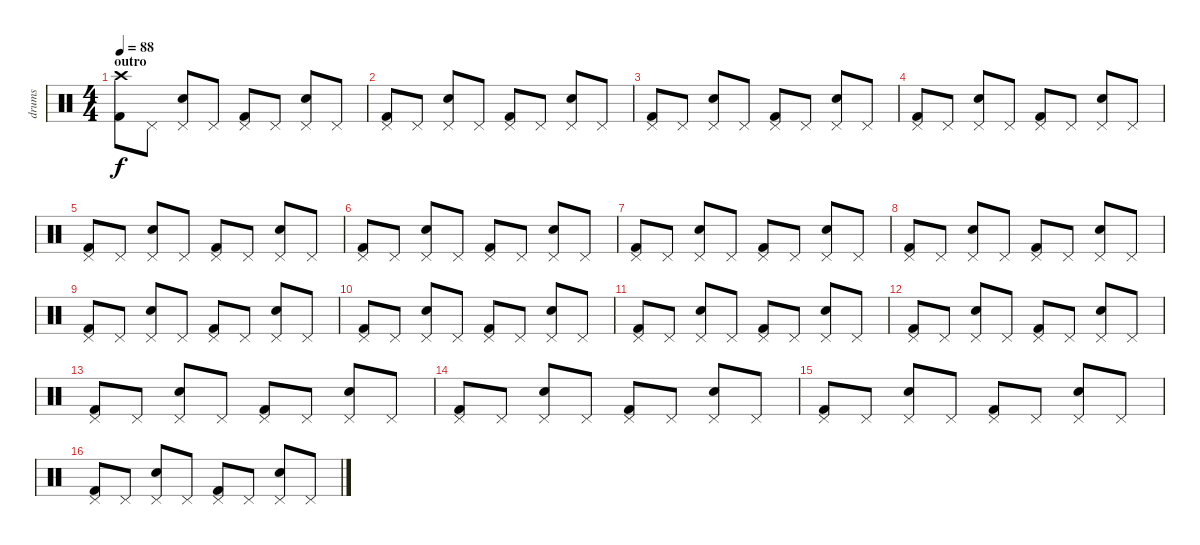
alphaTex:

\track ("drums" "drums") {instrument percussion}
\staff {score}
\articulation defaults
\ts (4 4)
\section ("" "outro")
\tempo 88
\clef neutral
\ks c
("Kick (hit) 2" "Crash high (hit)").8{dy f} "Pedal Hi-Hat (hit)".8 ("Electric Snare (hit)" "Pedal Hi-Hat (hit)").8 "Pedal Hi-Hat (hit)".8 ("Kick (hit) 2" "Pedal Hi-Hat (hit)").8 "Pedal Hi-Hat (hit)".8 ("Electric Snare (hit)" "Pedal Hi-Hat (hit)").8 "Pedal Hi-Hat (hit)".8 |
("Kick (hit) 2" "Pedal Hi-Hat (hit)").8 "Pedal Hi-Hat (hit)".8 ("Electric Snare (hit)" "Pedal Hi-Hat (hit)").8 "Pedal Hi-Hat (hit)".8 ("Kick (hit) 2" "Pedal Hi-Hat (hit)").8 "Pedal Hi-Hat (hit)".8 ("Electric Snare (hit)" "Pedal Hi-Hat (hit)").8 "Pedal Hi-Hat (hit)".8 |
("Kick (hit) 2" "Pedal Hi-Hat (hit)").8 "Pedal Hi-Hat (hit)".8 ("Electric Snare (hit)" "Pedal Hi-Hat (hit)").8 "Pedal Hi-Hat (hit)".8 ("Kick (hit) 2" "Pedal Hi-Hat (hit)").8 "Pedal Hi-Hat (hit)".8 ("Electric Snare (hit)" "Pedal Hi-Hat (hit)").8 "Pedal Hi-Hat (hit)".8 |
("Kick (hit) 2" "Pedal Hi-Hat (hit)").8 "Pedal Hi-Hat (hit)".8 ("Electric Snare (hit)" "Pedal Hi-Hat (hit)").8 "Pedal Hi-Hat (hit)".8 ("Kick (hit) 2" "Pedal Hi-Hat (hit)").8 "Pedal Hi-Hat (hit)".8 ("Electric Snare (hit)" "Pedal Hi-Hat (hit)").8 "Pedal Hi-Hat (hit)".8 |
("Kick (hit) 2" "Pedal Hi-Hat (hit)").8 "Pedal Hi-Hat (hit)".8 ("Electric Snare (hit)" "Pedal Hi-Hat (hit)").8 "Pedal Hi-Hat (hit)".8 ("Kick (hit) 2" "Pedal Hi-Hat (hit)").8 "Pedal Hi-Hat (hit)".8 ("Electric Snare (hit)" "Pedal Hi-Hat (hit)").8 "Pedal Hi-Hat (hit)".8 |
("Kick (hit) 2" "Pedal Hi-Hat (hit)").8 "Pedal Hi-Hat (hit)".8 ("Electric Snare (hit)" "Pedal Hi-Hat (hit)").8 "Pedal Hi-Hat (hit)".8 ("Kick (hit) 2" "Pedal Hi-Hat (hit)").8 "Pedal Hi-Hat (hit)".8 ("Electric Snare (hit)" "Pedal Hi-Hat (hit)").8 "Pedal Hi-Hat (hit)".8 |
("Kick (hit) 2" "Pedal Hi-Hat (hit)").8 "Pedal Hi-Hat (hit)".8 ("Electric Snare (hit)" "Pedal Hi-Hat (hit)").8 "Pedal Hi-Hat (hit)".8 ("Kick (hit) 2" "Pedal Hi-Hat (hit)").8 "Pedal Hi-Hat (hit)".8 ("Electric Snare (hit)" "Pedal Hi-Hat (hit)").8 "Pedal Hi-Hat (hit)".8 |
("Kick (hit) 2" "Pedal Hi-Hat (hit)").8 "Pedal Hi-Hat (hit)".8 ("Electric Snare (hit)" "Pedal Hi-Hat (hit)").8 "Pedal Hi-Hat (hit)".8 ("Kick (hit) 2" "Pedal Hi-Hat (hit)").8 "Pedal Hi-Hat (hit)".8 ("Electric Snare (hit)" "Pedal Hi-Hat (hit)").8 "Pedal Hi-Hat (hit)".8 |
("Kick (hit) 2" "Pedal Hi-Hat (hit)").8 "Pedal Hi-Hat (hit)".8 ("Electric Snare (hit)" "Pedal Hi-Hat (hit)").8 "Pedal Hi-Hat (hit)".8 ("Kick (hit) 2" "Pedal Hi-Hat (hit)").8 "Pedal Hi-Hat (hit)".8 ("Electric Snare (hit)" "Pedal Hi-Hat (hit)").8 "Pedal Hi-Hat (hit)".8 |
("Kick (hit) 2" "Pedal Hi-Hat (hit)").8 "Pedal Hi-Hat (hit)".8 ("Electric Snare (hit)" "Pedal Hi-Hat (hit)").8 "Pedal Hi-Hat (hit)".8 ("Kick (hit) 2" "Pedal Hi-Hat (hit)").8 "Pedal Hi-Hat (hit)".8 ("Electric Snare (hit)" "Pedal Hi-Hat (hit)").8 "Pedal Hi-Hat (hit)".8 |
("Kick (hit) 2" "Pedal Hi-Hat (hit)").8 "Pedal Hi-Hat (hit)".8 ("Electric Snare (hit)" "Pedal Hi-Hat (hit)").8 "Pedal Hi-Hat (hit)".8 ("Kick (hit) 2" "Pedal Hi-Hat (hit)").8 "Pedal Hi-Hat (hit)".8 ("Electric Snare (hit)" "Pedal Hi-Hat (hit)").8 "Pedal Hi-Hat (hit)".8 |
("Kick (hit) 2" "Pedal Hi-Hat (hit)").8 "Pedal Hi-Hat (hit)".8 ("Electric Snare (hit)" "Pedal Hi-Hat (hit)").8 "Pedal Hi-Hat (hit)".8 ("Kick (hit) 2" "Pedal Hi-Hat (hit)").8 "Pedal Hi-Hat (hit)".8 ("Electric Snare (hit)" "Pedal Hi-Hat (hit)").8 "Pedal Hi-Hat (hit)".8 |
("Kick (hit) 2" "Pedal Hi-Hat (hit)").8 "Pedal Hi-Hat (hit)".8 ("Electric Snare (hit)" "Pedal Hi-Hat (hit)").8 "Pedal Hi-Hat (hit)".8 ("Kick (hit) 2" "Pedal Hi-Hat (hit)").8 "Pedal Hi-Hat (hit)".8 ("Electric Snare (hit)" "Pedal Hi-Hat (hit)").8 "Pedal Hi-Hat (hit)".8 |
("Kick (hit) 2" "Pedal Hi-Hat (hit)").8 "Pedal Hi-Hat (hit)".8 ("Electric Snare (hit)" "Pedal Hi-Hat (hit)").8 "Pedal Hi-Hat (hit)".8 ("Kick (hit) 2" "Pedal Hi-Hat (hit)").8 "Pedal Hi-Hat (hit)".8 ("Electric Snare (hit)" "Pedal Hi-Hat (hit)").8 "Pedal Hi-Hat (hit)".8 |
("Kick (hit) 2" "Pedal Hi-Hat (hit)").8 "Pedal Hi-Hat (hit)".8 ("Electric Snare (hit)" "Pedal Hi-Hat (hit)").8 "Pedal Hi-Hat (hit)".8 ("Kick (hit) 2" "Pedal Hi-Hat (hit)").8 "Pedal Hi-Hat (hit)".8 ("Electric Snare (hit)" "Pedal Hi-Hat (hit)").8 "Pedal Hi-Hat (hit)".8 |
("Kick (hit) 2" "Pedal Hi-Hat (hit)").8 "Pedal Hi-Hat (hit)".8 ("Electric Snare (hit)" "Pedal Hi-Hat (hit)").8 "Pedal Hi-Hat (hit)".8 ("Kick (hit) 2" "Pedal Hi-Hat (hit)").8 "Pedal Hi-Hat (hit)".8 ("Electric Snare (hit)" "Pedal Hi-Hat (hit)").8 "Pedal Hi-Hat (hit)".8
